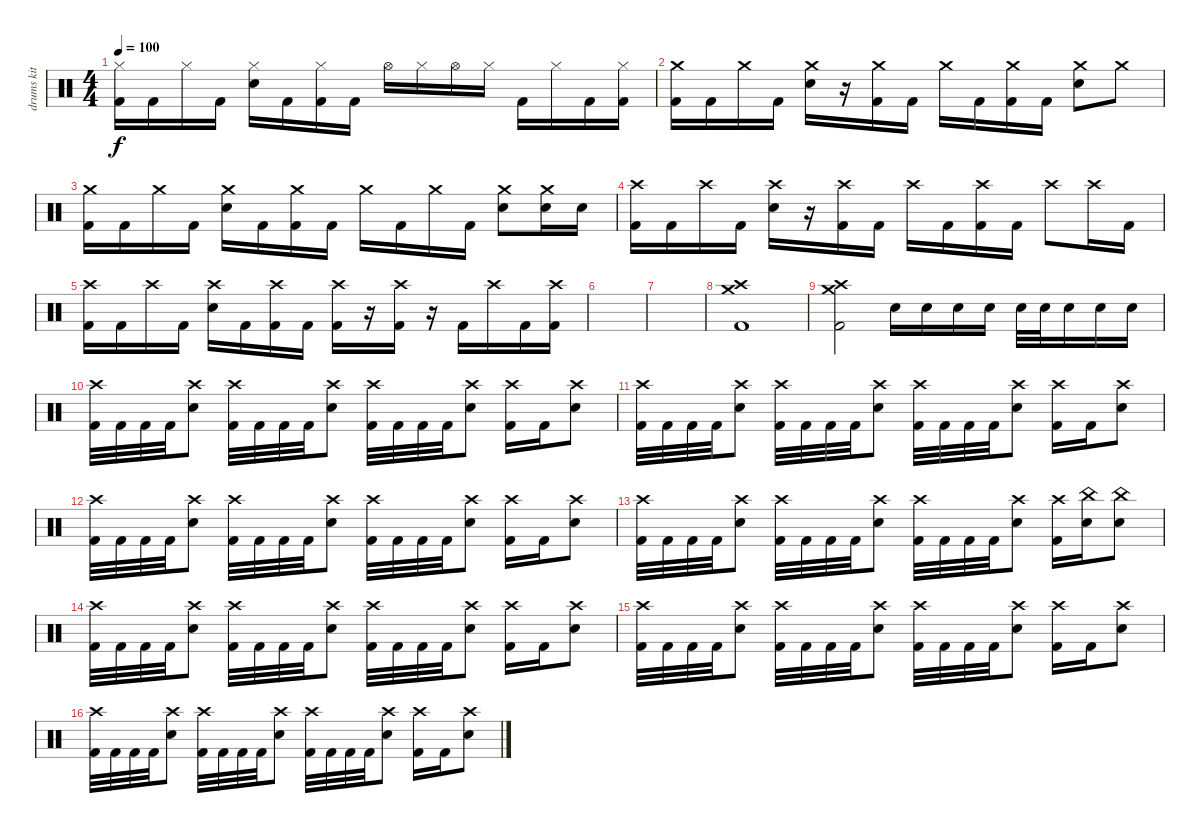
\track ("drums kit" "drums kit") {instrument percussion}
\staff {score}
\articulation defaults
\ts (4 4)
\tempo 100
\clef neutral
\ks c
("Hi-Hat (closed)" "Kick (hit) 2").16{dy f} "Kick (hit) 2".16 "Hi-Hat (closed)".16 "Kick (hit) 2".16 ("Hi-Hat (closed)" "Snare (hit) 2").16 "Kick (hit) 2".16 ("Hi-Hat (closed)" "Kick (hit) 2").16 "Kick (hit) 2".16 "Hi-Hat (open)".16 "Hi-Hat (closed)".16 "Hi-Hat (open)".16 "Hi-Hat (closed)".16 "Kick (hit) 2".16 "Hi-Hat (closed)".16 "Kick (hit) 2".16 ("Hi-Hat (closed)" "Kick (hit) 2").16 |
("Crash medium (hit)" "Kick (hit) 2").16 "Kick (hit) 2".16 "Crash medium (hit)".16 "Kick (hit) 2".16 ("Crash medium (hit)" "Snare (hit) 2").16 r.16 ("Crash medium (hit)" "Kick (hit) 2").16 "Kick (hit) 2".16 "Crash medium (hit)".16 "Kick (hit) 2".16 ("Crash medium (hit)" "Kick (hit) 2").16 "Kick (hit) 2".16 ("Crash medium (hit)" "Snare (hit) 2").8 "Crash medium (hit)".8 |
("Crash medium (hit)" "Kick (hit) 2").16 "Kick (hit) 2".16 "Crash medium (hit)".16 "Kick (hit) 2".16 ("Crash medium (hit)" "Snare (hit) 2").16 "Kick (hit) 2".16 ("Crash medium (hit)" "Kick (hit) 2").16 "Kick (hit) 2".16 "Crash medium (hit)".16 "Kick (hit) 2".16 "Crash medium (hit)".16 "Kick (hit) 2".16 ("Crash medium (hit)" "Snare (hit) 2").8 ("Crash medium (hit)" "Snare (hit) 2").16 "Snare (hit) 2".16 |
("Crash high (hit)" "Kick (hit) 2").16 "Kick (hit) 2".16 "Crash high (hit)".16 "Kick (hit) 2".16 ("Crash high (hit)" "Snare (hit) 2").16 r.16 ("Crash high (hit)" "Kick (hit) 2").16 "Kick (hit) 2".16 "Crash high (hit)".16 "Kick (hit) 2".16 ("Crash high (hit)" "Kick (hit) 2").16 "Kick (hit) 2".16 "Crash high (hit)".8 "Crash high (hit)".16 "Kick (hit) 2".16 |
("Crash high (hit)" "Kick (hit) 2").16 "Kick (hit) 2".16 "Crash high (hit)".16 "Kick (hit) 2".16 ("Crash high (hit)" "Snare (hit) 2").16 "Kick (hit) 2".16 ("Crash high (hit)" "Kick (hit) 2").16 "Kick (hit) 2".16 ("Crash high (hit)" "Kick (hit) 2").16 r.16 ("Crash high (hit)" "Kick (hit) 2").16 r.16 "Kick (hit) 2".16 "Crash high (hit)".16 "Kick (hit) 2".16 ("Crash high (hit)" "Kick (hit) 2").16 |
|
|
("Crash high (hit)" "Crash medium (hit)" "Kick (hit) 2").1 |
("Crash high (hit)" "Crash medium (hit)" "Kick (hit) 2").2 "Snare (hit) 2".16 "Snare (hit) 2".16 "Snare (hit) 2".16 "Snare (hit) 2".16 "Snare (hit) 2".32 "Snare (hit) 2".32 "Snare (hit) 2".16 "Snare (hit) 2".16 "Snare (hit) 2".16 |
("Crash high (hit)" "Kick (hit) 2").32 "Kick (hit) 2".32 "Kick (hit) 2".32 "Kick (hit) 2".32 ("Crash high (hit)" "Snare (hit) 2").8 ("Crash high (hit)" "Kick (hit) 2").32 "Kick (hit) 2".32 "Kick (hit) 2".32 "Kick (hit) 2".32 ("Crash high (hit)" "Snare (hit) 2").8 ("Crash high (hit)" "Kick (hit) 2").32 "Kick (hit) 2".32 "Kick (hit) 2".32 "Kick (hit) 2".32 ("Crash high (hit)" "Snare (hit) 2").8 ("Crash high (hit)" "Kick (hit) 2").16 "Kick (hit) 2".16 ("Crash high (hit)" "Snare (hit) 2").8 |
("Crash high (hit)" "Kick (hit) 2").32 "Kick (hit) 2".32 "Kick (hit) 2".32 "Kick (hit) 2".32 ("Crash high (hit)" "Snare (hit) 2").8 ("Crash high (hit)" "Kick (hit) 2").32 "Kick (hit) 2".32 "Kick (hit) 2".32 "Kick (hit) 2".32 ("Crash high (hit)" "Snare (hit) 2").8 ("Crash high (hit)" "Kick (hit) 2").32 "Kick (hit) 2".32 "Kick (hit) 2".32 "Kick (hit) 2".32 ("Crash high (hit)" "Snare (hit) 2").8 ("Crash high (hit)" "Kick (hit) 2").16 "Kick (hit) 2".16 ("Crash high (hit)" "Snare (hit) 2").8 |
("Crash high (hit)" "Kick (hit) 2").32 "Kick (hit) 2".32 "Kick (hit) 2".32 "Kick (hit) 2".32 ("Crash high (hit)" "Snare (hit) 2").8 ("Crash high (hit)" "Kick (hit) 2").32 "Kick (hit) 2".32 "Kick (hit) 2".32 "Kick (hit) 2".32 ("Crash high (hit)" "Snare (hit) 2").8 ("Crash high (hit)" "Kick (hit) 2").32 "Kick (hit) 2".32 "Kick (hit) 2".32 "Kick (hit) 2".32 ("Crash high (hit)" "Snare (hit) 2").8 ("Crash high (hit)" "Kick (hit) 2").16 "Kick (hit) 2".16 ("Crash high (hit)" "Snare (hit) 2").8 |
("Crash high (hit)" "Kick (hit) 2").32 "Kick (hit) 2".32 "Kick (hit) 2".32 "Kick (hit) 2".32 ("Crash high (hit)" "Snare (hit) 2").8 ("Crash high (hit)" "Kick (hit) 2").32 "Kick (hit) 2".32 "Kick (hit) 2".32 "Kick (hit) 2".32 ("Crash high (hit)" "Snare (hit) 2").8 ("Crash high (hit)" "Kick (hit) 2").32 "Kick (hit) 2".32 "Kick (hit) 2".32 "Kick (hit) 2".32 ("Crash high (hit)" "Snare (hit) 2").8 ("Crash high (hit)" "Kick (hit) 2").16 ("China (hit)" "Snare (hit) 2").16 ("China (hit)" "Snare (hit) 2").8 |
("Crash high (hit)" "Kick (hit) 2").32 "Kick (hit) 2".32 "Kick (hit) 2".32 "Kick (hit) 2".32 ("Crash high (hit)" "Snare (hit) 2").8 ("Crash high (hit)" "Kick (hit) 2").32 "Kick (hit) 2".32 "Kick (hit) 2".32 "Kick (hit) 2".32 ("Crash high (hit)" "Snare (hit) 2").8 ("Crash high (hit)" "Kick (hit) 2").32 "Kick (hit) 2".32 "Kick (hit) 2".32 "Kick (hit) 2".32 ("Crash high (hit)" "Snare (hit) 2").8 ("Crash high (hit)" "Kick (hit) 2").16 "Kick (hit) 2".16 ("Crash high (hit)" "Snare (hit) 2").8 |
("Crash high (hit)" "Kick (hit) 2").32 "Kick (hit) 2".32 "Kick (hit) 2".32 "Kick (hit) 2".32 ("Crash high (hit)" "Snare (hit) 2").8 ("Crash high (hit)" "Kick (hit) 2").32 "Kick (hit) 2".32 "Kick (hit) 2".32 "Kick (hit) 2".32 ("Crash high (hit)" "Snare (hit) 2").8 ("Crash high (hit)" "Kick (hit) 2").32 "Kick (hit) 2".32 "Kick (hit) 2".32 "Kick (hit) 2".32 ("Crash high (hit)" "Snare (hit) 2").8 ("Crash high (hit)" "Kick (hit) 2").16 "Kick (hit) 2".16 ("Crash high (hit)" "Snare (hit) 2").8 |
("Crash high (hit)" "Kick (hit) 2").32 "Kick (hit) 2".32 "Kick (hit) 2".32 "Kick (hit) 2".32 ("Crash high (hit)" "Snare (hit) 2").8 ("Crash high (hit)" "Kick (hit) 2").32 "Kick (hit) 2".32 "Kick (hit) 2".32 "Kick (hit) 2".32 ("Crash high (hit)" "Snare (hit) 2").8 ("Crash high (hit)" "Kick (hit) 2").32 "Kick (hit) 2".32 "Kick (hit) 2".32 "Kick (hit) 2".32 ("Crash high (hit)" "Snare (hit) 2").8 ("Crash high (hit)" "Kick (hit) 2").16 "Kick (hit) 2".16 ("Crash high (hit)" "Snare (hit) 2").8
